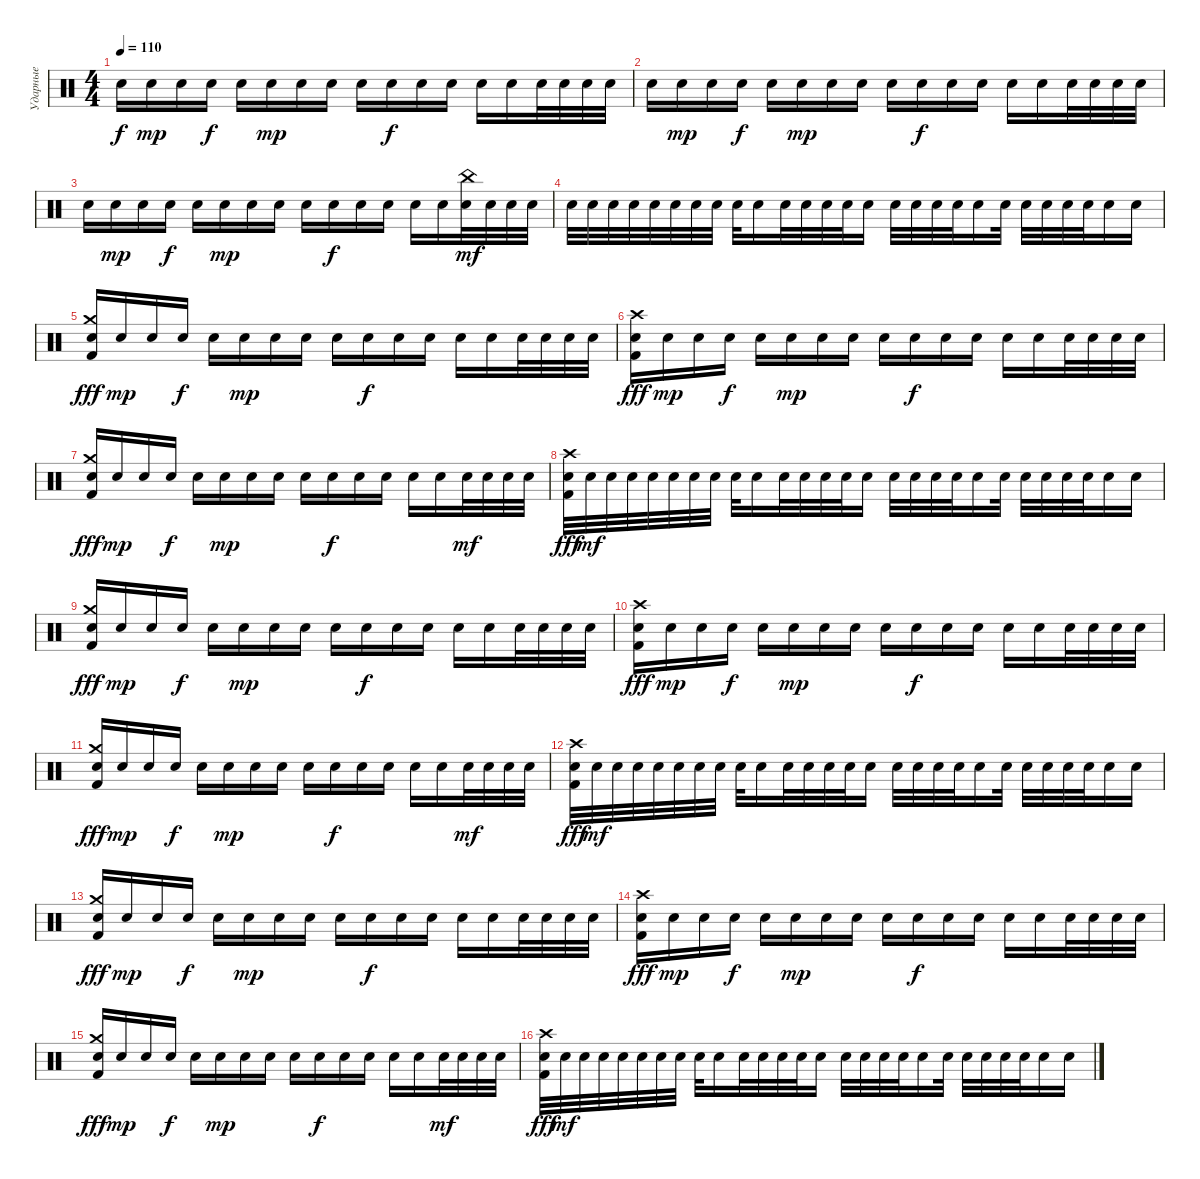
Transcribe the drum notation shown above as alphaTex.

\track ("Ударные" "Ударные") {instrument percussion}
\staff {score}
\articulation defaults
\ts (4 4)
\tempo 110
\clef neutral
\ks c "Electric Snare (hit)".16{dy f} "Electric Snare (hit)".16{dy mp} "Electric Snare (hit)".16 "Electric Snare (hit)".16{dy f} "Electric Snare (hit)".16 "Electric Snare (hit)".16{dy mp} "Electric Snare (hit)".16 "Electric Snare (hit)".16 "Electric Snare (hit)".16 "Electric Snare (hit)".16{dy f} "Electric Snare (hit)".16 "Electric Snare (hit)".16 "Electric Snare (hit)".16 "Electric Snare (hit)".16 "Electric Snare (hit)".32 "Electric Snare (hit)".32 "Electric Snare (hit)".32 "Electric Snare (hit)".32
|
"Electric Snare (hit)".16 "Electric Snare (hit)".16{dy mp} "Electric Snare (hit)".16 "Electric Snare (hit)".16{dy f} "Electric Snare (hit)".16 "Electric Snare (hit)".16{dy mp} "Electric Snare (hit)".16 "Electric Snare (hit)".16 "Electric Snare (hit)".16 "Electric Snare (hit)".16{dy f} "Electric Snare (hit)".16 "Electric Snare (hit)".16 "Electric Snare (hit)".16 "Electric Snare (hit)".16 "Electric Snare (hit)".32 "Electric Snare (hit)".32 "Electric Snare (hit)".32 "Electric Snare (hit)".32 |
"Electric Snare (hit)".16 "Electric Snare (hit)".16{dy mp} "Electric Snare (hit)".16 "Electric Snare (hit)".16{dy f} "Electric Snare (hit)".16 "Electric Snare (hit)".16{dy mp} "Electric Snare (hit)".16 "Electric Snare (hit)".16 "Electric Snare (hit)".16 "Electric Snare (hit)".16{dy f} "Electric Snare (hit)".16 "Electric Snare (hit)".16 "Electric Snare (hit)".16 "Electric Snare (hit)".16 ("China (hit)" "Electric Snare (hit)").32{dy mf} "Electric Snare (hit)".32 "Electric Snare (hit)".32 "Electric Snare (hit)".32 |
"Electric Snare (hit)".32 "Electric Snare (hit)".32 "Electric Snare (hit)".32 "Electric Snare (hit)".32 "Electric Snare (hit)".32 "Electric Snare (hit)".32 "Electric Snare (hit)".32 "Electric Snare (hit)".32 "Electric Snare (hit)".32 "Electric Snare (hit)".16 "Electric Snare (hit)".32 "Electric Snare (hit)".32 "Electric Snare (hit)".32 "Electric Snare (hit)".32 "Electric Snare (hit)".16 "Electric Snare (hit)".32 "Electric Snare (hit)".32 "Electric Snare (hit)".32 "Electric Snare (hit)".32 "Electric Snare (hit)".16 "Electric Snare (hit)".32 "Electric Snare (hit)".32 "Electric Snare (hit)".32 "Electric Snare (hit)".32 "Electric Snare (hit)".32 "Electric Snare (hit)".16 "Electric Snare (hit)".16 |
("Crash medium (hit)" "Electric Snare (hit)" "Kick (hit) 2").16{dy fff} "Electric Snare (hit)".16{dy mp} "Electric Snare (hit)".16 "Electric Snare (hit)".16{dy f} "Electric Snare (hit)".16 "Electric Snare (hit)".16{dy mp} "Electric Snare (hit)".16 "Electric Snare (hit)".16 "Electric Snare (hit)".16 "Electric Snare (hit)".16{dy f} "Electric Snare (hit)".16 "Electric Snare (hit)".16 "Electric Snare (hit)".16 "Electric Snare (hit)".16 "Electric Snare (hit)".32 "Electric Snare (hit)".32 "Electric Snare (hit)".32 "Electric Snare (hit)".32 |
("Crash high (hit)" "Electric Snare (hit)" "Kick (hit) 2").16{dy fff} "Electric Snare (hit)".16{dy mp} "Electric Snare (hit)".16 "Electric Snare (hit)".16{dy f} "Electric Snare (hit)".16 "Electric Snare (hit)".16{dy mp} "Electric Snare (hit)".16 "Electric Snare (hit)".16 "Electric Snare (hit)".16 "Electric Snare (hit)".16{dy f} "Electric Snare (hit)".16 "Electric Snare (hit)".16 "Electric Snare (hit)".16 "Electric Snare (hit)".16 "Electric Snare (hit)".32 "Electric Snare (hit)".32 "Electric Snare (hit)".32 "Electric Snare (hit)".32 |
("Crash medium (hit)" "Electric Snare (hit)" "Kick (hit) 2").16{dy fff} "Electric Snare (hit)".16{dy mp} "Electric Snare (hit)".16 "Electric Snare (hit)".16{dy f} "Electric Snare (hit)".16 "Electric Snare (hit)".16{dy mp} "Electric Snare (hit)".16 "Electric Snare (hit)".16 "Electric Snare (hit)".16 "Electric Snare (hit)".16{dy f} "Electric Snare (hit)".16 "Electric Snare (hit)".16 "Electric Snare (hit)".16 "Electric Snare (hit)".16 "Electric Snare (hit)".32{dy mf} "Electric Snare (hit)".32 "Electric Snare (hit)".32 "Electric Snare (hit)".32 |
("Crash high (hit)" "Electric Snare (hit)" "Kick (hit) 2").32{dy fff} "Electric Snare (hit)".32{dy mf} "Electric Snare (hit)".32 "Electric Snare (hit)".32 "Electric Snare (hit)".32 "Electric Snare (hit)".32 "Electric Snare (hit)".32 "Electric Snare (hit)".32 "Electric Snare (hit)".32 "Electric Snare (hit)".16 "Electric Snare (hit)".32 "Electric Snare (hit)".32 "Electric Snare (hit)".32 "Electric Snare (hit)".32 "Electric Snare (hit)".16 "Electric Snare (hit)".32 "Electric Snare (hit)".32 "Electric Snare (hit)".32 "Electric Snare (hit)".32 "Electric Snare (hit)".16 "Electric Snare (hit)".32 "Electric Snare (hit)".32 "Electric Snare (hit)".32 "Electric Snare (hit)".32 "Electric Snare (hit)".32 "Electric Snare (hit)".16 "Electric Snare (hit)".16 |
("Crash medium (hit)" "Electric Snare (hit)" "Kick (hit) 2").16{dy fff} "Electric Snare (hit)".16{dy mp} "Electric Snare (hit)".16 "Electric Snare (hit)".16{dy f} "Electric Snare (hit)".16 "Electric Snare (hit)".16{dy mp} "Electric Snare (hit)".16 "Electric Snare (hit)".16 "Electric Snare (hit)".16 "Electric Snare (hit)".16{dy f} "Electric Snare (hit)".16 "Electric Snare (hit)".16 "Electric Snare (hit)".16 "Electric Snare (hit)".16 "Electric Snare (hit)".32 "Electric Snare (hit)".32 "Electric Snare (hit)".32 "Electric Snare (hit)".32 |
("Crash high (hit)" "Electric Snare (hit)" "Kick (hit) 2").16{dy fff} "Electric Snare (hit)".16{dy mp} "Electric Snare (hit)".16 "Electric Snare (hit)".16{dy f} "Electric Snare (hit)".16 "Electric Snare (hit)".16{dy mp} "Electric Snare (hit)".16 "Electric Snare (hit)".16 "Electric Snare (hit)".16 "Electric Snare (hit)".16{dy f} "Electric Snare (hit)".16 "Electric Snare (hit)".16 "Electric Snare (hit)".16 "Electric Snare (hit)".16 "Electric Snare (hit)".32 "Electric Snare (hit)".32 "Electric Snare (hit)".32 "Electric Snare (hit)".32 |
("Crash medium (hit)" "Electric Snare (hit)" "Kick (hit) 2").16{dy fff} "Electric Snare (hit)".16{dy mp} "Electric Snare (hit)".16 "Electric Snare (hit)".16{dy f} "Electric Snare (hit)".16 "Electric Snare (hit)".16{dy mp} "Electric Snare (hit)".16 "Electric Snare (hit)".16 "Electric Snare (hit)".16 "Electric Snare (hit)".16{dy f} "Electric Snare (hit)".16 "Electric Snare (hit)".16 "Electric Snare (hit)".16 "Electric Snare (hit)".16 "Electric Snare (hit)".32{dy mf} "Electric Snare (hit)".32 "Electric Snare (hit)".32 "Electric Snare (hit)".32 |
("Crash high (hit)" "Electric Snare (hit)" "Kick (hit) 2").32{dy fff} "Electric Snare (hit)".32{dy mf} "Electric Snare (hit)".32 "Electric Snare (hit)".32 "Electric Snare (hit)".32 "Electric Snare (hit)".32 "Electric Snare (hit)".32 "Electric Snare (hit)".32 "Electric Snare (hit)".32 "Electric Snare (hit)".16 "Electric Snare (hit)".32 "Electric Snare (hit)".32 "Electric Snare (hit)".32 "Electric Snare (hit)".32 "Electric Snare (hit)".16 "Electric Snare (hit)".32 "Electric Snare (hit)".32 "Electric Snare (hit)".32 "Electric Snare (hit)".32 "Electric Snare (hit)".16 "Electric Snare (hit)".32 "Electric Snare (hit)".32 "Electric Snare (hit)".32 "Electric Snare (hit)".32 "Electric Snare (hit)".32 "Electric Snare (hit)".16 "Electric Snare (hit)".16 |
("Crash medium (hit)" "Electric Snare (hit)" "Kick (hit) 2").16{dy fff} "Electric Snare (hit)".16{dy mp} "Electric Snare (hit)".16 "Electric Snare (hit)".16{dy f} "Electric Snare (hit)".16 "Electric Snare (hit)".16{dy mp} "Electric Snare (hit)".16 "Electric Snare (hit)".16 "Electric Snare (hit)".16 "Electric Snare (hit)".16{dy f} "Electric Snare (hit)".16 "Electric Snare (hit)".16 "Electric Snare (hit)".16 "Electric Snare (hit)".16 "Electric Snare (hit)".32 "Electric Snare (hit)".32 "Electric Snare (hit)".32 "Electric Snare (hit)".32 |
("Crash high (hit)" "Electric Snare (hit)" "Kick (hit) 2").16{dy fff} "Electric Snare (hit)".16{dy mp} "Electric Snare (hit)".16 "Electric Snare (hit)".16{dy f} "Electric Snare (hit)".16 "Electric Snare (hit)".16{dy mp} "Electric Snare (hit)".16 "Electric Snare (hit)".16 "Electric Snare (hit)".16 "Electric Snare (hit)".16{dy f} "Electric Snare (hit)".16 "Electric Snare (hit)".16 "Electric Snare (hit)".16 "Electric Snare (hit)".16 "Electric Snare (hit)".32 "Electric Snare (hit)".32 "Electric Snare (hit)".32 "Electric Snare (hit)".32 |
("Crash medium (hit)" "Electric Snare (hit)" "Kick (hit) 2").16{dy fff} "Electric Snare (hit)".16{dy mp} "Electric Snare (hit)".16 "Electric Snare (hit)".16{dy f} "Electric Snare (hit)".16 "Electric Snare (hit)".16{dy mp} "Electric Snare (hit)".16 "Electric Snare (hit)".16 "Electric Snare (hit)".16 "Electric Snare (hit)".16{dy f} "Electric Snare (hit)".16 "Electric Snare (hit)".16 "Electric Snare (hit)".16 "Electric Snare (hit)".16 "Electric Snare (hit)".32{dy mf} "Electric Snare (hit)".32 "Electric Snare (hit)".32 "Electric Snare (hit)".32 |
("Crash high (hit)" "Electric Snare (hit)" "Kick (hit) 2").32{dy fff} "Electric Snare (hit)".32{dy mf} "Electric Snare (hit)".32 "Electric Snare (hit)".32 "Electric Snare (hit)".32 "Electric Snare (hit)".32 "Electric Snare (hit)".32 "Electric Snare (hit)".32 "Electric Snare (hit)".32 "Electric Snare (hit)".16 "Electric Snare (hit)".32 "Electric Snare (hit)".32 "Electric Snare (hit)".32 "Electric Snare (hit)".32 "Electric Snare (hit)".16 "Electric Snare (hit)".32 "Electric Snare (hit)".32 "Electric Snare (hit)".32 "Electric Snare (hit)".32 "Electric Snare (hit)".16 "Electric Snare (hit)".32 "Electric Snare (hit)".32 "Electric Snare (hit)".32 "Electric Snare (hit)".32 "Electric Snare (hit)".32 "Electric Snare (hit)".16 "Electric Snare (hit)".16
